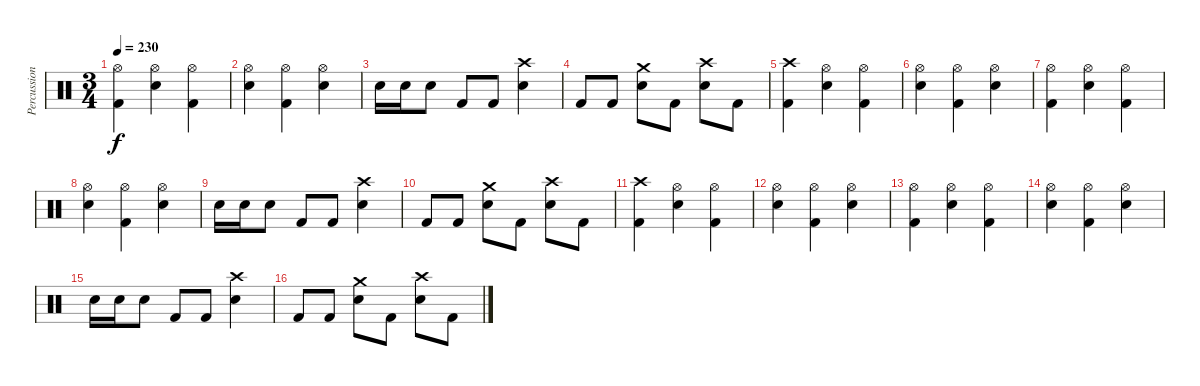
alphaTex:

\track ("Percussion" "Percussion") {instrument percussion}
\staff {score}
\articulation defaults
\ts (3 4)
\tempo 230
\clef neutral
\ks c
("Hi-Hat (open)" "Kick (hit) 2").4{dy f} ("Hi-Hat (open)" "Electric Snare (hit)").4 ("Hi-Hat (open)" "Kick (hit) 2").4 |
("Hi-Hat (open)" "Electric Snare (hit)").4 ("Hi-Hat (open)" "Kick (hit) 2").4 ("Hi-Hat (open)" "Electric Snare (hit)").4 |
"Electric Snare (hit)".16 "Electric Snare (hit)".16 "Electric Snare (hit)".8 "Kick (hit) 2".8 "Kick (hit) 2".8 ("Crash high (hit)" "Electric Snare (hit)").4 |
"Kick (hit) 2".8 "Kick (hit) 2".8 ("Crash medium (hit)" "Electric Snare (hit)").8 "Kick (hit) 2".8 ("Crash high (hit)" "Electric Snare (hit)").8 "Kick (hit) 2".8 |
("Crash high (hit)" "Kick (hit) 2").4 ("Hi-Hat (open)" "Electric Snare (hit)").4 ("Hi-Hat (open)" "Kick (hit) 2").4 |
("Hi-Hat (open)" "Electric Snare (hit)").4 ("Hi-Hat (open)" "Kick (hit) 2").4 ("Hi-Hat (open)" "Electric Snare (hit)").4 |
("Hi-Hat (open)" "Kick (hit) 2").4 ("Hi-Hat (open)" "Electric Snare (hit)").4 ("Hi-Hat (open)" "Kick (hit) 2").4 |
("Hi-Hat (open)" "Electric Snare (hit)").4 ("Hi-Hat (open)" "Kick (hit) 2").4 ("Hi-Hat (open)" "Electric Snare (hit)").4 |
"Electric Snare (hit)".16 "Electric Snare (hit)".16 "Electric Snare (hit)".8 "Kick (hit) 2".8 "Kick (hit) 2".8 ("Crash high (hit)" "Electric Snare (hit)").4 |
"Kick (hit) 2".8 "Kick (hit) 2".8 ("Crash medium (hit)" "Electric Snare (hit)").8 "Kick (hit) 2".8 ("Crash high (hit)" "Electric Snare (hit)").8 "Kick (hit) 2".8 |
("Crash high (hit)" "Kick (hit) 2").4 ("Hi-Hat (open)" "Electric Snare (hit)").4 ("Hi-Hat (open)" "Kick (hit) 2").4 |
("Hi-Hat (open)" "Electric Snare (hit)").4 ("Hi-Hat (open)" "Kick (hit) 2").4 ("Hi-Hat (open)" "Electric Snare (hit)").4 |
("Hi-Hat (open)" "Kick (hit) 2").4 ("Hi-Hat (open)" "Electric Snare (hit)").4 ("Hi-Hat (open)" "Kick (hit) 2").4 |
("Hi-Hat (open)" "Electric Snare (hit)").4 ("Hi-Hat (open)" "Kick (hit) 2").4 ("Hi-Hat (open)" "Electric Snare (hit)").4 |
"Electric Snare (hit)".16 "Electric Snare (hit)".16 "Electric Snare (hit)".8 "Kick (hit) 2".8 "Kick (hit) 2".8 ("Crash high (hit)" "Electric Snare (hit)").4 |
"Kick (hit) 2".8 "Kick (hit) 2".8 ("Crash medium (hit)" "Electric Snare (hit)").8 "Kick (hit) 2".8 ("Crash high (hit)" "Electric Snare (hit)").8 "Kick (hit) 2".8
